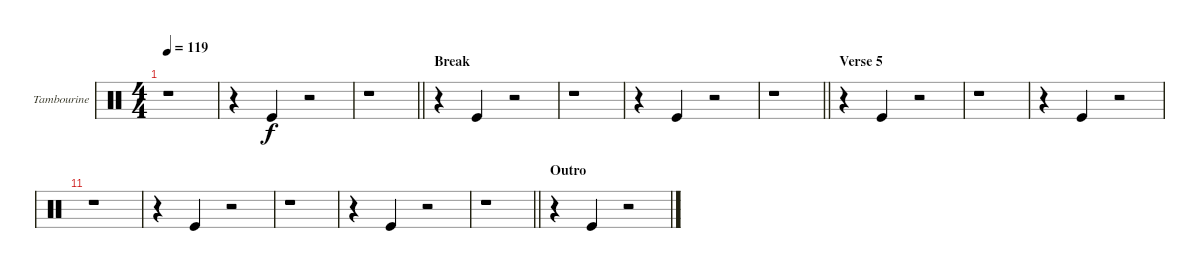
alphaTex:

\defaultSystemsLayout 4
\bracketExtendMode groupsimilarinstruments
\useSystemSignSeparator
\multiBarRest
\multiTrackTrackNamePolicy allsystems
\firstSystemTrackNameMode fullname
\firstSystemTrackNameOrientation horizontal
\otherSystemsTrackNameOrientation horizontal
\defaultBarNumberDisplay FirstOfSystem
\track ("Tambourine" "Tamb.") {multiBarRest instrument percussion}
\staff {score}
\articulation defaults
\ts (4 4)
\tempo 119
\clef neutral
\ks aminor
r.1{dy f} |
r.4 "Kick (hit)".4 r.2 |
\barLineRight lightlight
r.1 |
\section ("" "Break")
r.4 "Kick (hit)".4 r.2 |
r.1 |
r.4 "Kick (hit)".4 r.2 |
\barLineRight lightlight
r.1 |
\section ("" "Verse 5")
r.4 "Kick (hit)".4 r.2 |
r.1 |
r.4 "Kick (hit)".4 r.2 |
r.1 |
r.4 "Kick (hit)".4 r.2 |
r.1 |
r.4 "Kick (hit)".4 r.2 |
\barLineRight lightlight
r.1 |
\section ("" "Outro")
r.4 "Kick (hit)".4 r.2
